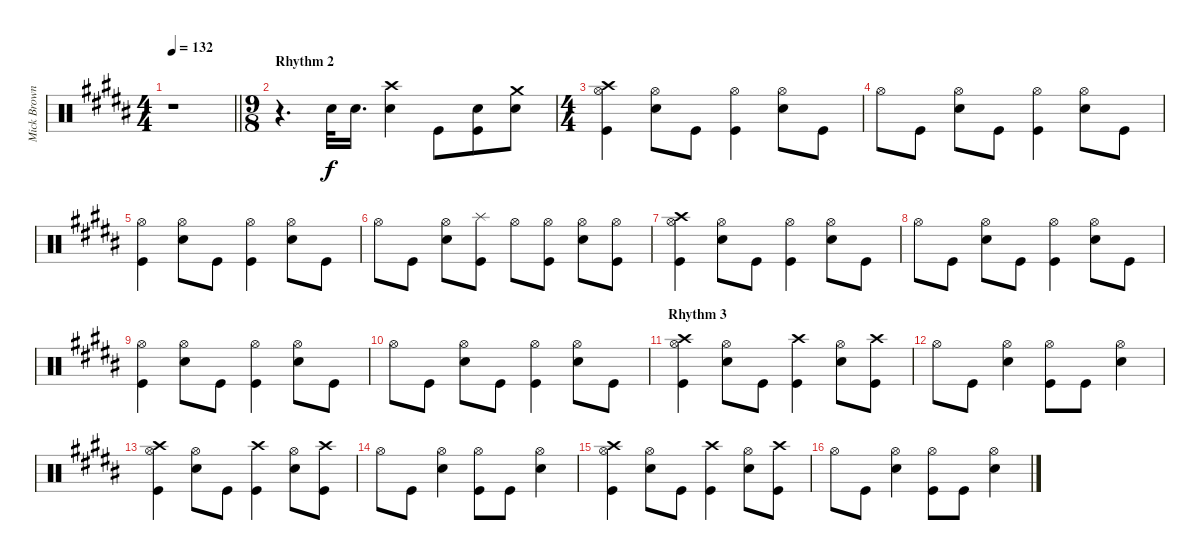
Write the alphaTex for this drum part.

\track ("Mick Brown" "Mick Brown") {instrument percussion}
\staff {score}
\articulation defaults
\ts (4 4)
\tempo 132
\clef neutral
\barLineRight lightlight
\ks g#minor
r.1{dy f} |
\ts (9 8)
\section ("" "Rhythm 2")
r.4{d} "Snare (hit) 2".32 "Snare (hit) 2".16{d} ("Crash high (hit)" "Snare (hit) 2").4 "Kick (hit)".8 ("Snare (hit) 2" "Kick (hit)").8 ("Crash medium (hit)" "Snare (hit) 2").8 |
\ts (4 4)
("Hi-Hat (open)" "Crash high (hit)" "Kick (hit)").4 ("Hi-Hat (open)" "Snare (hit) 2").8 "Kick (hit)".8 ("Hi-Hat (open)" "Kick (hit)").4 ("Hi-Hat (open)" "Snare (hit) 2").8 "Kick (hit)".8 |
"Hi-Hat (open)".8 "Kick (hit)".8 ("Hi-Hat (open)" "Snare (hit) 2").8 "Kick (hit)".8 ("Hi-Hat (open)" "Kick (hit)").4 ("Hi-Hat (open)" "Snare (hit) 2").8 "Kick (hit)".8 |
("Hi-Hat (open)" "Kick (hit)").4 ("Hi-Hat (open)" "Snare (hit) 2").8 "Kick (hit)".8 ("Hi-Hat (open)" "Kick (hit)").4 ("Hi-Hat (open)" "Snare (hit) 2").8 "Kick (hit)".8 |
"Hi-Hat (open)".8 "Kick (hit)".8 ("Hi-Hat (open)" "Snare (hit) 2").8 ("Kick (hit)" "Splash (hit)").8 "Hi-Hat (open)".8 ("Hi-Hat (open)" "Kick (hit)").8 ("Hi-Hat (open)" "Snare (hit) 2").8 ("Hi-Hat (open)" "Kick (hit)").8 |
("Hi-Hat (open)" "Crash high (hit)" "Kick (hit)").4 ("Hi-Hat (open)" "Snare (hit) 2").8 "Kick (hit)".8 ("Hi-Hat (open)" "Kick (hit)").4 ("Hi-Hat (open)" "Snare (hit) 2").8 "Kick (hit)".8 |
"Hi-Hat (open)".8 "Kick (hit)".8 ("Hi-Hat (open)" "Snare (hit) 2").8 "Kick (hit)".8 ("Hi-Hat (open)" "Kick (hit)").4 ("Hi-Hat (open)" "Snare (hit) 2").8 "Kick (hit)".8 |
("Hi-Hat (open)" "Kick (hit)").4 ("Hi-Hat (open)" "Snare (hit) 2").8 "Kick (hit)".8 ("Hi-Hat (open)" "Kick (hit)").4 ("Hi-Hat (open)" "Snare (hit) 2").8 "Kick (hit)".8 |
"Hi-Hat (open)".8 "Kick (hit)".8 ("Hi-Hat (open)" "Snare (hit) 2").8 "Kick (hit)".8 ("Hi-Hat (open)" "Kick (hit)").4 ("Hi-Hat (open)" "Snare (hit) 2").8 "Kick (hit)".8 |
\section ("" "Rhythm 3")
("Hi-Hat (open)" "Crash high (hit)" "Kick (hit)").4 ("Snare (hit) 2" "Hi-Hat (open)").8 "Kick (hit)".8 ("Kick (hit)" "Crash high (hit)").4 ("Snare (hit) 2" "Hi-Hat (open)").8 ("Crash high (hit)" "Kick (hit)").8 |
"Hi-Hat (open)".8 "Kick (hit)".8 ("Hi-Hat (open)" "Snare (hit) 2").4 ("Hi-Hat (open)" "Kick (hit)").8 "Kick (hit)".8 ("Hi-Hat (open)" "Snare (hit) 2").4 |
("Crash high (hit)" "Kick (hit)" "Hi-Hat (open)").4 ("Hi-Hat (open)" "Snare (hit) 2").8 "Kick (hit)".8 ("Kick (hit)" "Crash high (hit)").4 ("Hi-Hat (open)" "Snare (hit) 2").8 ("Kick (hit)" "Crash high (hit)").8 |
"Hi-Hat (open)".8 "Kick (hit)".8 ("Snare (hit) 2" "Hi-Hat (open)").4 ("Kick (hit)" "Hi-Hat (open)").8 "Kick (hit)".8 ("Snare (hit) 2" "Hi-Hat (open)").4 |
("Hi-Hat (open)" "Crash high (hit)" "Kick (hit)").4 ("Snare (hit) 2" "Hi-Hat (open)").8 "Kick (hit)".8 ("Kick (hit)" "Crash high (hit)").4 ("Hi-Hat (open)" "Snare (hit) 2").8 ("Crash high (hit)" "Kick (hit)").8 |
"Hi-Hat (open)".8 "Kick (hit)".8 ("Hi-Hat (open)" "Snare (hit) 2").4 ("Hi-Hat (open)" "Kick (hit)").8 "Kick (hit)".8 ("Snare (hit) 2" "Hi-Hat (open)").4
